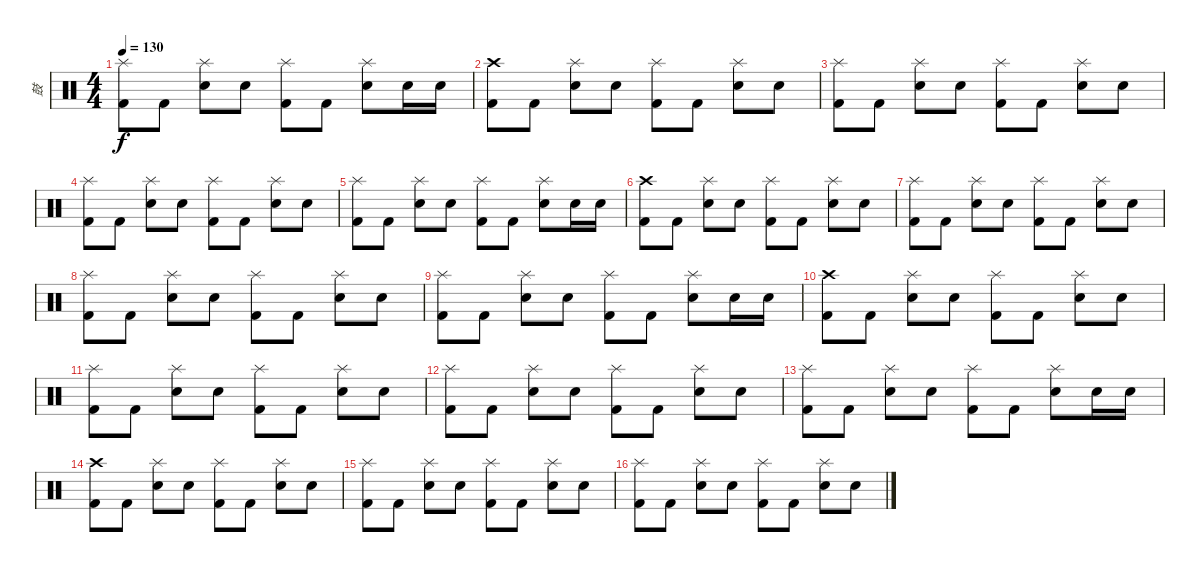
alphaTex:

\track ("鼓" "鼓") {instrument percussion}
\staff {score}
\articulation defaults
\ts (4 4)
\tempo 130
\clef neutral
\ks c
("Splash (hit)" "Kick (hit) 2").8{dy f} "Kick (hit) 2".8 ("Splash (hit)" "Electric Snare (hit)").8 "Electric Snare (hit)".8 ("Splash (hit)" "Kick (hit) 2").8 "Kick (hit) 2".8 ("Splash (hit)" "Electric Snare (hit)").8 "Electric Snare (hit)".16 "Electric Snare (hit)".16 |
("Crash high (hit)" "Kick (hit) 2").8{volume 5} "Kick (hit) 2".8 ("Splash (hit)" "Electric Snare (hit)").8 "Electric Snare (hit)".8 ("Splash (hit)" "Kick (hit) 2").8 "Kick (hit) 2".8 ("Splash (hit)" "Electric Snare (hit)").8 "Electric Snare (hit)".8 |
("Splash (hit)" "Kick (hit) 2").8 "Kick (hit) 2".8 ("Splash (hit)" "Electric Snare (hit)").8 "Electric Snare (hit)".8 ("Splash (hit)" "Kick (hit) 2").8 "Kick (hit) 2".8 ("Splash (hit)" "Electric Snare (hit)").8 "Electric Snare (hit)".8 |
("Splash (hit)" "Kick (hit) 2").8 "Kick (hit) 2".8 ("Splash (hit)" "Electric Snare (hit)").8 "Electric Snare (hit)".8 ("Splash (hit)" "Kick (hit) 2").8 "Kick (hit) 2".8 ("Splash (hit)" "Electric Snare (hit)").8 "Electric Snare (hit)".8 |
("Splash (hit)" "Kick (hit) 2").8 "Kick (hit) 2".8 ("Splash (hit)" "Electric Snare (hit)").8 "Electric Snare (hit)".8 ("Splash (hit)" "Kick (hit) 2").8 "Kick (hit) 2".8 ("Splash (hit)" "Electric Snare (hit)").8 "Electric Snare (hit)".16 "Electric Snare (hit)".16 |
("Crash high (hit)" "Kick (hit) 2").8{volume 4} "Kick (hit) 2".8 ("Splash (hit)" "Electric Snare (hit)").8 "Electric Snare (hit)".8 ("Splash (hit)" "Kick (hit) 2").8 "Kick (hit) 2".8 ("Splash (hit)" "Electric Snare (hit)").8 "Electric Snare (hit)".8 |
("Splash (hit)" "Kick (hit) 2").8 "Kick (hit) 2".8 ("Splash (hit)" "Electric Snare (hit)").8 "Electric Snare (hit)".8 ("Splash (hit)" "Kick (hit) 2").8 "Kick (hit) 2".8 ("Splash (hit)" "Electric Snare (hit)").8 "Electric Snare (hit)".8 |
("Splash (hit)" "Kick (hit) 2").8 "Kick (hit) 2".8 ("Splash (hit)" "Electric Snare (hit)").8 "Electric Snare (hit)".8 ("Splash (hit)" "Kick (hit) 2").8 "Kick (hit) 2".8 ("Splash (hit)" "Electric Snare (hit)").8 "Electric Snare (hit)".8 |
("Splash (hit)" "Kick (hit) 2").8 "Kick (hit) 2".8 ("Splash (hit)" "Electric Snare (hit)").8 "Electric Snare (hit)".8 ("Splash (hit)" "Kick (hit) 2").8 "Kick (hit) 2".8 ("Splash (hit)" "Electric Snare (hit)").8 "Electric Snare (hit)".16 "Electric Snare (hit)".16 |
("Crash high (hit)" "Kick (hit) 2").8{volume 3} "Kick (hit) 2".8 ("Splash (hit)" "Electric Snare (hit)").8 "Electric Snare (hit)".8 ("Splash (hit)" "Kick (hit) 2").8 "Kick (hit) 2".8 ("Splash (hit)" "Electric Snare (hit)").8 "Electric Snare (hit)".8 |
("Splash (hit)" "Kick (hit) 2").8 "Kick (hit) 2".8 ("Splash (hit)" "Electric Snare (hit)").8 "Electric Snare (hit)".8 ("Splash (hit)" "Kick (hit) 2").8 "Kick (hit) 2".8 ("Splash (hit)" "Electric Snare (hit)").8 "Electric Snare (hit)".8 |
("Splash (hit)" "Kick (hit) 2").8 "Kick (hit) 2".8 ("Splash (hit)" "Electric Snare (hit)").8 "Electric Snare (hit)".8 ("Splash (hit)" "Kick (hit) 2").8 "Kick (hit) 2".8 ("Splash (hit)" "Electric Snare (hit)").8 "Electric Snare (hit)".8 |
("Splash (hit)" "Kick (hit) 2").8 "Kick (hit) 2".8 ("Splash (hit)" "Electric Snare (hit)").8 "Electric Snare (hit)".8 ("Splash (hit)" "Kick (hit) 2").8 "Kick (hit) 2".8 ("Splash (hit)" "Electric Snare (hit)").8 "Electric Snare (hit)".16 "Electric Snare (hit)".16 |
("Crash high (hit)" "Kick (hit) 2").8{volume 2} "Kick (hit) 2".8 ("Splash (hit)" "Electric Snare (hit)").8 "Electric Snare (hit)".8 ("Splash (hit)" "Kick (hit) 2").8 "Kick (hit) 2".8 ("Splash (hit)" "Electric Snare (hit)").8 "Electric Snare (hit)".8 |
("Splash (hit)" "Kick (hit) 2").8 "Kick (hit) 2".8 ("Splash (hit)" "Electric Snare (hit)").8 "Electric Snare (hit)".8 ("Splash (hit)" "Kick (hit) 2").8 "Kick (hit) 2".8 ("Splash (hit)" "Electric Snare (hit)").8 "Electric Snare (hit)".8 |
("Splash (hit)" "Kick (hit) 2").8 "Kick (hit) 2".8 ("Splash (hit)" "Electric Snare (hit)").8 "Electric Snare (hit)".8 ("Splash (hit)" "Kick (hit) 2").8 "Kick (hit) 2".8 ("Splash (hit)" "Electric Snare (hit)").8 "Electric Snare (hit)".8
